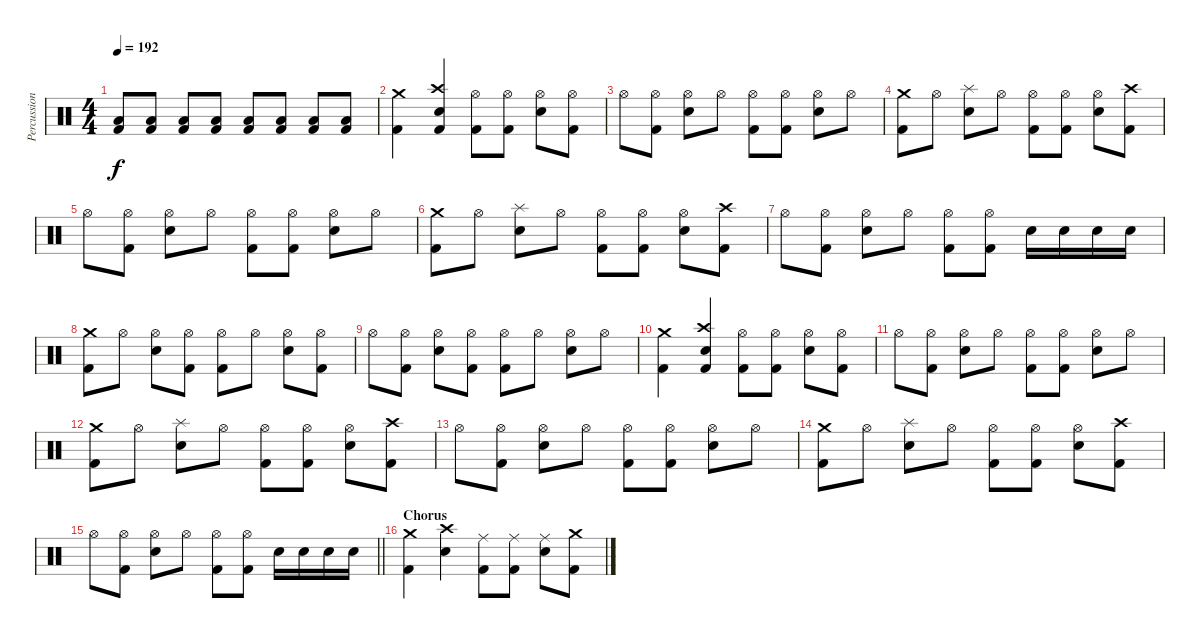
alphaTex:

\track ("Percussion" "Percussion") {instrument percussion}
\staff {score}
\articulation defaults
\ts (4 4)
\tempo 192
\clef neutral
\ks c
("Low Floor Tom (hit)" "Kick (hit) 2").8{dy f} ("Low Floor Tom (hit)" "Kick (hit) 2").8 ("Low Floor Tom (hit)" "Kick (hit) 2").8 ("Low Floor Tom (hit)" "Kick (hit) 2").8 ("Low Floor Tom (hit)" "Kick (hit) 2").8 ("Low Floor Tom (hit)" "Kick (hit) 2").8 ("Low Floor Tom (hit)" "Kick (hit) 2").8 ("Low Floor Tom (hit)" "Kick (hit) 2").8 |
("Crash medium (hit)" "Kick (hit) 2").4 ("Crash high (hit)" "Electric Snare (hit)" "Kick (hit) 2").4 ("Hi-Hat (open)" "Kick (hit) 2").8 ("Hi-Hat (open)" "Kick (hit) 2").8 ("Hi-Hat (open)" "Electric Snare (hit)").8 ("Hi-Hat (open)" "Kick (hit) 2").8 |
"Hi-Hat (open)".8 ("Hi-Hat (open)" "Kick (hit) 2").8 ("Hi-Hat (open)" "Electric Snare (hit)").8 "Hi-Hat (open)".8 ("Hi-Hat (open)" "Kick (hit) 2").8 ("Hi-Hat (open)" "Kick (hit) 2").8 ("Hi-Hat (open)" "Electric Snare (hit)").8 "Hi-Hat (open)".8 |
("Crash medium (hit)" "Kick (hit) 2").8 "Hi-Hat (open)".8 ("Splash (hit)" "Electric Snare (hit)").8 "Hi-Hat (open)".8 ("Hi-Hat (open)" "Kick (hit) 2").8 ("Hi-Hat (open)" "Kick (hit) 2").8 ("Hi-Hat (open)" "Electric Snare (hit)").8 ("Crash high (hit)" "Kick (hit) 2").8 |
"Hi-Hat (open)".8 ("Hi-Hat (open)" "Kick (hit) 2").8 ("Hi-Hat (open)" "Electric Snare (hit)").8 "Hi-Hat (open)".8 ("Hi-Hat (open)" "Kick (hit) 2").8 ("Hi-Hat (open)" "Kick (hit) 2").8 ("Hi-Hat (open)" "Electric Snare (hit)").8 "Hi-Hat (open)".8 |
("Crash medium (hit)" "Kick (hit) 2").8 "Hi-Hat (open)".8 ("Splash (hit)" "Electric Snare (hit)").8 "Hi-Hat (open)".8 ("Hi-Hat (open)" "Kick (hit) 2").8 ("Hi-Hat (open)" "Kick (hit) 2").8 ("Hi-Hat (open)" "Electric Snare (hit)").8 ("Crash high (hit)" "Kick (hit) 2").8 |
"Hi-Hat (open)".8 ("Hi-Hat (open)" "Kick (hit) 2").8 ("Hi-Hat (open)" "Electric Snare (hit)").8 "Hi-Hat (open)".8 ("Hi-Hat (open)" "Kick (hit) 2").8 ("Hi-Hat (open)" "Kick (hit) 2").8 "Electric Snare (hit)".16 "Electric Snare (hit)".16 "Electric Snare (hit)".16 "Electric Snare (hit)".16 |
("Crash medium (hit)" "Kick (hit) 2").8 "Hi-Hat (open)".8 ("Hi-Hat (open)" "Electric Snare (hit)").8 ("Hi-Hat (open)" "Kick (hit) 2").8 ("Hi-Hat (open)" "Kick (hit) 2").8 "Hi-Hat (open)".8 ("Hi-Hat (open)" "Electric Snare (hit)").8 ("Hi-Hat (open)" "Kick (hit) 2").8 |
"Hi-Hat (open)".8 ("Hi-Hat (open)" "Kick (hit) 2").8 ("Hi-Hat (open)" "Electric Snare (hit)").8 ("Hi-Hat (open)" "Kick (hit) 2").8 ("Hi-Hat (open)" "Kick (hit) 2").8 "Hi-Hat (open)".8 ("Hi-Hat (open)" "Electric Snare (hit)").8 "Hi-Hat (open)".8 |
("Crash medium (hit)" "Kick (hit) 2").4 ("Crash high (hit)" "Electric Snare (hit)" "Kick (hit) 2").4 ("Hi-Hat (open)" "Kick (hit) 2").8 ("Hi-Hat (open)" "Kick (hit) 2").8 ("Hi-Hat (open)" "Electric Snare (hit)").8 ("Hi-Hat (open)" "Kick (hit) 2").8 |
"Hi-Hat (open)".8 ("Hi-Hat (open)" "Kick (hit) 2").8 ("Hi-Hat (open)" "Electric Snare (hit)").8 "Hi-Hat (open)".8 ("Hi-Hat (open)" "Kick (hit) 2").8 ("Hi-Hat (open)" "Kick (hit) 2").8 ("Hi-Hat (open)" "Electric Snare (hit)").8 "Hi-Hat (open)".8 |
("Crash medium (hit)" "Kick (hit) 2").8 "Hi-Hat (open)".8 ("Splash (hit)" "Electric Snare (hit)").8 "Hi-Hat (open)".8 ("Hi-Hat (open)" "Kick (hit) 2").8 ("Hi-Hat (open)" "Kick (hit) 2").8 ("Hi-Hat (open)" "Electric Snare (hit)").8 ("Crash high (hit)" "Kick (hit) 2").8 |
"Hi-Hat (open)".8 ("Hi-Hat (open)" "Kick (hit) 2").8 ("Hi-Hat (open)" "Electric Snare (hit)").8 "Hi-Hat (open)".8 ("Hi-Hat (open)" "Kick (hit) 2").8 ("Hi-Hat (open)" "Kick (hit) 2").8 ("Hi-Hat (open)" "Electric Snare (hit)").8 "Hi-Hat (open)".8 |
("Crash medium (hit)" "Kick (hit) 2").8 "Hi-Hat (open)".8 ("Splash (hit)" "Electric Snare (hit)").8 "Hi-Hat (open)".8 ("Hi-Hat (open)" "Kick (hit) 2").8 ("Hi-Hat (open)" "Kick (hit) 2").8 ("Hi-Hat (open)" "Electric Snare (hit)").8 ("Crash high (hit)" "Kick (hit) 2").8 |
\barLineRight lightlight "Hi-Hat (open)".8
("Hi-Hat (open)" "Kick (hit) 2").8 ("Hi-Hat (open)" "Electric Snare (hit)").8 "Hi-Hat (open)".8 ("Hi-Hat (open)" "Kick (hit) 2").8 ("Hi-Hat (open)" "Kick (hit) 2").8 "Electric Snare (hit)".16 "Electric Snare (hit)".16 "Electric Snare (hit)".16 "Electric Snare (hit)".16 |
\section ("" "Chorus")
("Crash medium (hit)" "Kick (hit) 2").4 ("Crash high (hit)" "Electric Snare (hit)").4 ("Ride (middle)" "Kick (hit) 2").8 ("Ride (middle)" "Kick (hit) 2").8 ("Ride (middle)" "Electric Snare (hit)").8 ("Crash medium (hit)" "Kick (hit) 2").8
